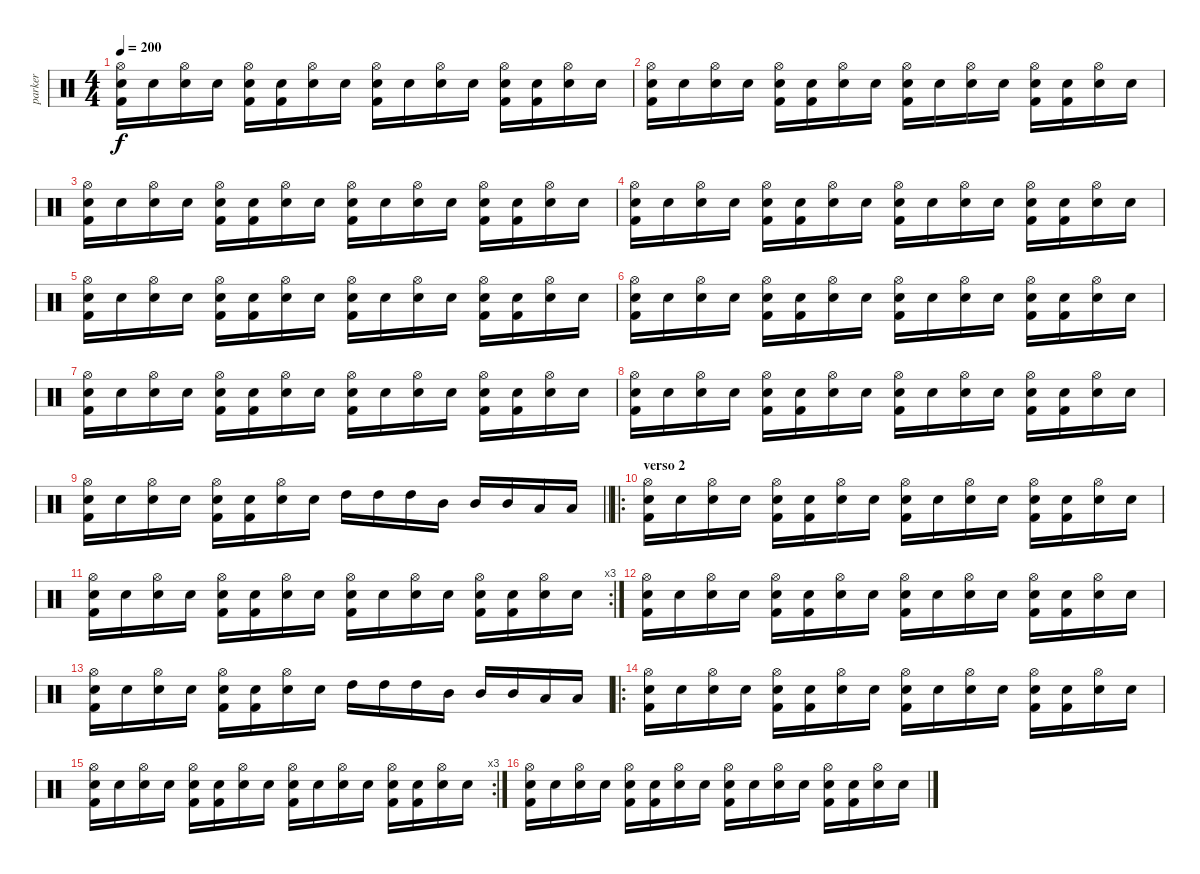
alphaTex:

\track ("parker" "parker") {instrument percussion}
\staff {score}
\articulation defaults
\ts (4 4)
\tempo 200
\clef neutral
\ks c
("Hi-Hat (open)" "Kick (hit) 2" "Snare (hit)").16{dy f} "Snare (hit)".16 ("Hi-Hat (open)" "Electric Snare (hit)").16 "Snare (hit)".16 ("Hi-Hat (open)" "Kick (hit) 2" "Snare (hit)").16 ("Kick (hit) 2" "Snare (hit)").16 ("Hi-Hat (open)" "Electric Snare (hit)").16 "Snare (hit)".16 ("Hi-Hat (open)" "Kick (hit) 2" "Snare (hit)").16 "Snare (hit)".16 ("Hi-Hat (open)" "Electric Snare (hit)").16 "Snare (hit)".16 ("Hi-Hat (open)" "Kick (hit) 2" "Snare (hit)").16 ("Kick (hit) 2" "Snare (hit)").16 ("Hi-Hat (open)" "Electric Snare (hit)").16 "Snare (hit)".16 |
("Hi-Hat (open)" "Kick (hit) 2" "Snare (hit)").16 "Snare (hit)".16 ("Hi-Hat (open)" "Electric Snare (hit)").16 "Snare (hit)".16 ("Hi-Hat (open)" "Kick (hit) 2" "Snare (hit)").16 ("Kick (hit) 2" "Snare (hit)").16 ("Hi-Hat (open)" "Electric Snare (hit)").16 "Snare (hit)".16 ("Hi-Hat (open)" "Kick (hit) 2" "Snare (hit)").16 "Snare (hit)".16 ("Hi-Hat (open)" "Electric Snare (hit)").16 "Snare (hit)".16 ("Hi-Hat (open)" "Kick (hit) 2" "Snare (hit)").16 ("Kick (hit) 2" "Snare (hit)").16 ("Hi-Hat (open)" "Electric Snare (hit)").16 "Snare (hit)".16 |
("Hi-Hat (open)" "Kick (hit) 2" "Snare (hit)").16 "Snare (hit)".16 ("Hi-Hat (open)" "Electric Snare (hit)").16 "Snare (hit)".16 ("Hi-Hat (open)" "Kick (hit) 2" "Snare (hit)").16 ("Kick (hit) 2" "Snare (hit)").16 ("Hi-Hat (open)" "Electric Snare (hit)").16 "Snare (hit)".16 ("Hi-Hat (open)" "Kick (hit) 2" "Snare (hit)").16 "Snare (hit)".16 ("Hi-Hat (open)" "Electric Snare (hit)").16 "Snare (hit)".16 ("Hi-Hat (open)" "Kick (hit) 2" "Snare (hit)").16 ("Kick (hit) 2" "Snare (hit)").16 ("Hi-Hat (open)" "Electric Snare (hit)").16 "Snare (hit)".16 |
("Hi-Hat (open)" "Kick (hit) 2" "Snare (hit)").16 "Snare (hit)".16 ("Hi-Hat (open)" "Electric Snare (hit)").16 "Snare (hit)".16 ("Hi-Hat (open)" "Kick (hit) 2" "Snare (hit)").16 ("Kick (hit) 2" "Snare (hit)").16 ("Hi-Hat (open)" "Electric Snare (hit)").16 "Snare (hit)".16 ("Hi-Hat (open)" "Kick (hit) 2" "Snare (hit)").16 "Snare (hit)".16 ("Hi-Hat (open)" "Electric Snare (hit)").16 "Snare (hit)".16 ("Hi-Hat (open)" "Kick (hit) 2" "Snare (hit)").16 ("Kick (hit) 2" "Snare (hit)").16 ("Hi-Hat (open)" "Electric Snare (hit)").16 "Snare (hit)".16 |
("Hi-Hat (open)" "Kick (hit) 2" "Snare (hit)").16 "Snare (hit)".16 ("Hi-Hat (open)" "Electric Snare (hit)").16 "Snare (hit)".16 ("Hi-Hat (open)" "Kick (hit) 2" "Snare (hit)").16 ("Kick (hit) 2" "Snare (hit)").16 ("Hi-Hat (open)" "Electric Snare (hit)").16 "Snare (hit)".16 ("Hi-Hat (open)" "Kick (hit) 2" "Snare (hit)").16 "Snare (hit)".16 ("Hi-Hat (open)" "Electric Snare (hit)").16 "Snare (hit)".16 ("Hi-Hat (open)" "Kick (hit) 2" "Snare (hit)").16 ("Kick (hit) 2" "Snare (hit)").16 ("Hi-Hat (open)" "Electric Snare (hit)").16 "Snare (hit)".16 |
("Hi-Hat (open)" "Kick (hit) 2" "Snare (hit)").16 "Snare (hit)".16 ("Hi-Hat (open)" "Electric Snare (hit)").16 "Snare (hit)".16 ("Hi-Hat (open)" "Kick (hit) 2" "Snare (hit)").16 ("Kick (hit) 2" "Snare (hit)").16 ("Hi-Hat (open)" "Electric Snare (hit)").16 "Snare (hit)".16 ("Hi-Hat (open)" "Kick (hit) 2" "Snare (hit)").16 "Snare (hit)".16 ("Hi-Hat (open)" "Electric Snare (hit)").16 "Snare (hit)".16 ("Hi-Hat (open)" "Kick (hit) 2" "Snare (hit)").16 ("Kick (hit) 2" "Snare (hit)").16 ("Hi-Hat (open)" "Electric Snare (hit)").16 "Snare (hit)".16 |
("Hi-Hat (open)" "Kick (hit) 2" "Snare (hit)").16 "Snare (hit)".16 ("Hi-Hat (open)" "Electric Snare (hit)").16 "Snare (hit)".16 ("Hi-Hat (open)" "Kick (hit) 2" "Snare (hit)").16 ("Kick (hit) 2" "Snare (hit)").16 ("Hi-Hat (open)" "Electric Snare (hit)").16 "Snare (hit)".16 ("Hi-Hat (open)" "Kick (hit) 2" "Snare (hit)").16 "Snare (hit)".16 ("Hi-Hat (open)" "Electric Snare (hit)").16 "Snare (hit)".16 ("Hi-Hat (open)" "Kick (hit) 2" "Snare (hit)").16 ("Kick (hit) 2" "Snare (hit)").16 ("Hi-Hat (open)" "Electric Snare (hit)").16 "Snare (hit)".16 |
("Hi-Hat (open)" "Kick (hit) 2" "Snare (hit)").16 "Snare (hit)".16 ("Hi-Hat (open)" "Electric Snare (hit)").16 "Snare (hit)".16 ("Hi-Hat (open)" "Kick (hit) 2" "Snare (hit)").16 ("Kick (hit) 2" "Snare (hit)").16 ("Hi-Hat (open)" "Electric Snare (hit)").16 "Snare (hit)".16 ("Hi-Hat (open)" "Kick (hit) 2" "Snare (hit)").16 "Snare (hit)".16 ("Hi-Hat (open)" "Electric Snare (hit)").16 "Snare (hit)".16 ("Hi-Hat (open)" "Kick (hit) 2" "Snare (hit)").16 ("Kick (hit) 2" "Snare (hit)").16 ("Hi-Hat (open)" "Electric Snare (hit)").16 "Snare (hit)".16 |
\barLineRight lightlight
("Hi-Hat (open)" "Kick (hit) 2" "Snare (hit)").16 "Snare (hit)".16 ("Hi-Hat (open)" "Electric Snare (hit)").16 "Snare (hit)".16 ("Hi-Hat (open)" "Kick (hit) 2" "Snare (hit)").16 ("Kick (hit) 2" "Snare (hit)").16 ("Hi-Hat (open)" "Electric Snare (hit)").16 "Snare (hit)".16 "High Tom (hit)".16 "High Tom (hit)".16 "High Tom (hit)".16 "Mid Tom (hit)".16 "Mid Tom (hit)".16 "Mid Tom (hit)".16 "Low Tom (hit)".16 "Low Tom (hit)".16 |
\ro
\section ("" "verso 2")
("Hi-Hat (open)" "Kick (hit) 2" "Snare (hit)").16 "Snare (hit)".16 ("Hi-Hat (open)" "Electric Snare (hit)").16 "Snare (hit)".16 ("Hi-Hat (open)" "Kick (hit) 2" "Snare (hit)").16 ("Kick (hit) 2" "Snare (hit)").16 ("Hi-Hat (open)" "Electric Snare (hit)").16 "Snare (hit)".16 ("Hi-Hat (open)" "Kick (hit) 2" "Snare (hit)").16 "Snare (hit)".16 ("Hi-Hat (open)" "Electric Snare (hit)").16 "Snare (hit)".16 ("Hi-Hat (open)" "Kick (hit) 2" "Snare (hit)").16 ("Kick (hit) 2" "Snare (hit)").16 ("Hi-Hat (open)" "Electric Snare (hit)").16 "Snare (hit)".16 |
\rc 3
("Hi-Hat (open)" "Kick (hit) 2" "Snare (hit)").16 "Snare (hit)".16 ("Hi-Hat (open)" "Electric Snare (hit)").16 "Snare (hit)".16 ("Hi-Hat (open)" "Kick (hit) 2" "Snare (hit)").16 ("Kick (hit) 2" "Snare (hit)").16 ("Hi-Hat (open)" "Electric Snare (hit)").16 "Snare (hit)".16 ("Hi-Hat (open)" "Kick (hit) 2" "Snare (hit)").16 "Snare (hit)".16 ("Hi-Hat (open)" "Electric Snare (hit)").16 "Snare (hit)".16 ("Hi-Hat (open)" "Kick (hit) 2" "Snare (hit)").16 ("Kick (hit) 2" "Snare (hit)").16 ("Hi-Hat (open)" "Electric Snare (hit)").16 "Snare (hit)".16 |
("Hi-Hat (open)" "Kick (hit) 2" "Snare (hit)").16 "Snare (hit)".16 ("Hi-Hat (open)" "Electric Snare (hit)").16 "Snare (hit)".16 ("Hi-Hat (open)" "Kick (hit) 2" "Snare (hit)").16 ("Kick (hit) 2" "Snare (hit)").16 ("Hi-Hat (open)" "Electric Snare (hit)").16 "Snare (hit)".16 ("Hi-Hat (open)" "Kick (hit) 2" "Snare (hit)").16 "Snare (hit)".16 ("Hi-Hat (open)" "Electric Snare (hit)").16 "Snare (hit)".16 ("Hi-Hat (open)" "Kick (hit) 2" "Snare (hit)").16 ("Kick (hit) 2" "Snare (hit)").16 ("Hi-Hat (open)" "Electric Snare (hit)").16 "Snare (hit)".16 |
("Hi-Hat (open)" "Kick (hit) 2" "Snare (hit)").16 "Snare (hit)".16 ("Hi-Hat (open)" "Electric Snare (hit)").16 "Snare (hit)".16 ("Hi-Hat (open)" "Kick (hit) 2" "Snare (hit)").16 ("Kick (hit) 2" "Snare (hit)").16 ("Hi-Hat (open)" "Electric Snare (hit)").16 "Snare (hit)".16 "High Tom (hit)".16 "High Tom (hit)".16 "High Tom (hit)".16 "Mid Tom (hit)".16 "Mid Tom (hit)".16 "Mid Tom (hit)".16 "Low Tom (hit)".16 "Low Tom (hit)".16 |
\ro
("Hi-Hat (open)" "Kick (hit) 2" "Snare (hit)").16 "Snare (hit)".16 ("Hi-Hat (open)" "Electric Snare (hit)").16 "Snare (hit)".16 ("Hi-Hat (open)" "Kick (hit) 2" "Snare (hit)").16 ("Kick (hit) 2" "Snare (hit)").16 ("Hi-Hat (open)" "Electric Snare (hit)").16 "Snare (hit)".16 ("Hi-Hat (open)" "Kick (hit) 2" "Snare (hit)").16 "Snare (hit)".16 ("Hi-Hat (open)" "Electric Snare (hit)").16 "Snare (hit)".16 ("Hi-Hat (open)" "Kick (hit) 2" "Snare (hit)").16 ("Kick (hit) 2" "Snare (hit)").16 ("Hi-Hat (open)" "Electric Snare (hit)").16 "Snare (hit)".16 |
\rc 3
("Hi-Hat (open)" "Kick (hit) 2" "Snare (hit)").16 "Snare (hit)".16 ("Hi-Hat (open)" "Electric Snare (hit)").16 "Snare (hit)".16 ("Hi-Hat (open)" "Kick (hit) 2" "Snare (hit)").16 ("Kick (hit) 2" "Snare (hit)").16 ("Hi-Hat (open)" "Electric Snare (hit)").16 "Snare (hit)".16 ("Hi-Hat (open)" "Kick (hit) 2" "Snare (hit)").16 "Snare (hit)".16 ("Hi-Hat (open)" "Electric Snare (hit)").16 "Snare (hit)".16 ("Hi-Hat (open)" "Kick (hit) 2" "Snare (hit)").16 ("Kick (hit) 2" "Snare (hit)").16 ("Hi-Hat (open)" "Electric Snare (hit)").16 "Snare (hit)".16 |
("Hi-Hat (open)" "Kick (hit) 2" "Snare (hit)").16 "Snare (hit)".16 ("Hi-Hat (open)" "Electric Snare (hit)").16 "Snare (hit)".16 ("Hi-Hat (open)" "Kick (hit) 2" "Snare (hit)").16 ("Kick (hit) 2" "Snare (hit)").16 ("Hi-Hat (open)" "Electric Snare (hit)").16 "Snare (hit)".16 ("Hi-Hat (open)" "Kick (hit) 2" "Snare (hit)").16 "Snare (hit)".16 ("Hi-Hat (open)" "Electric Snare (hit)").16 "Snare (hit)".16 ("Hi-Hat (open)" "Kick (hit) 2" "Snare (hit)").16 ("Kick (hit) 2" "Snare (hit)").16 ("Hi-Hat (open)" "Electric Snare (hit)").16 "Snare (hit)".16
